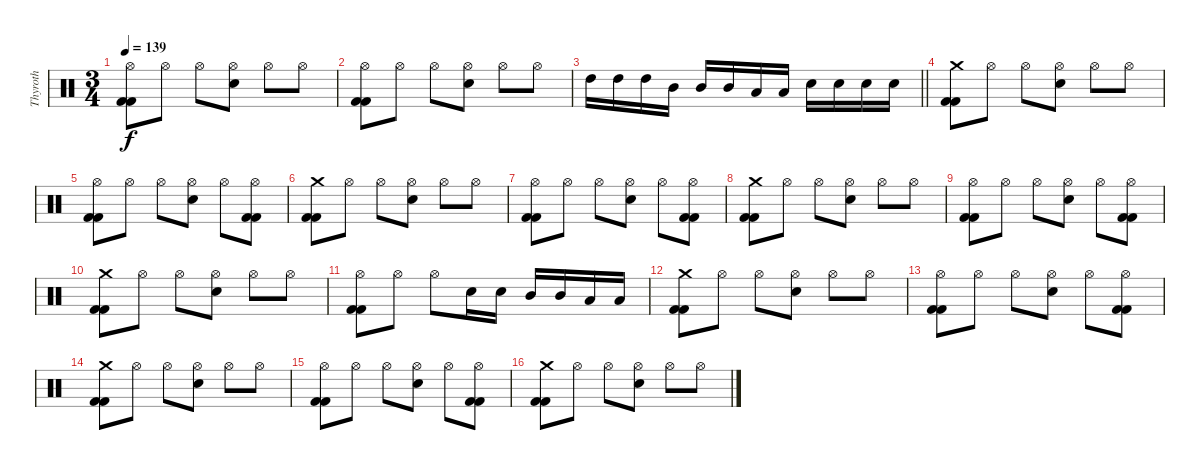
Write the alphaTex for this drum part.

\track ("Thyroth" "Thyroth") {instrument percussion}
\staff {score}
\articulation defaults
\ts (3 4)
\tempo 139
\clef neutral
\ks c
("Kick (hit) 2" "Kick (hit) 2" "Hi-Hat (open)").8{dy f} "Hi-Hat (open)".8 "Hi-Hat (open)".8 ("Snare (hit) 2" "Hi-Hat (open)").8 "Hi-Hat (open)".8 "Hi-Hat (open)".8 |
("Kick (hit) 2" "Kick (hit) 2" "Hi-Hat (open)").8 "Hi-Hat (open)".8 "Hi-Hat (open)".8 ("Snare (hit) 2" "Hi-Hat (open)").8 "Hi-Hat (open)".8 "Hi-Hat (open)".8 |
\barLineRight lightlight "High Tom (hit)".16 "High Tom (hit)".16 "High Tom (hit)".16 "Mid Tom (hit)".16 "Mid Tom (hit)".16 "Mid Tom (hit)".16 "Low Tom (hit)".16 "Low Tom (hit)".16 "Snare (hit) 2".16 "Snare (hit) 2".16 "Snare (hit) 2".16 "Snare (hit) 2".16
|
("Kick (hit) 2" "Kick (hit) 2" "Crash medium (hit)").8 "Hi-Hat (open)".8 "Hi-Hat (open)".8 ("Snare (hit) 2" "Hi-Hat (open)").8 "Hi-Hat (open)".8 "Hi-Hat (open)".8 |
("Kick (hit) 2" "Kick (hit) 2" "Hi-Hat (open)").8 "Hi-Hat (open)".8 "Hi-Hat (open)".8 ("Snare (hit) 2" "Hi-Hat (open)").8 "Hi-Hat (open)".8 ("Kick (hit) 2" "Kick (hit) 2" "Hi-Hat (open)").8 |
("Kick (hit) 2" "Kick (hit) 2" "Crash medium (hit)").8 "Hi-Hat (open)".8 "Hi-Hat (open)".8 ("Snare (hit) 2" "Hi-Hat (open)").8 "Hi-Hat (open)".8 "Hi-Hat (open)".8 |
("Kick (hit) 2" "Kick (hit) 2" "Hi-Hat (open)").8 "Hi-Hat (open)".8 "Hi-Hat (open)".8 ("Snare (hit) 2" "Hi-Hat (open)").8 "Hi-Hat (open)".8 ("Kick (hit) 2" "Kick (hit) 2" "Hi-Hat (open)").8 |
("Kick (hit) 2" "Kick (hit) 2" "Crash medium (hit)").8 "Hi-Hat (open)".8 "Hi-Hat (open)".8 ("Snare (hit) 2" "Hi-Hat (open)").8 "Hi-Hat (open)".8 "Hi-Hat (open)".8 |
("Kick (hit) 2" "Kick (hit) 2" "Hi-Hat (open)").8 "Hi-Hat (open)".8 "Hi-Hat (open)".8 ("Snare (hit) 2" "Hi-Hat (open)").8 "Hi-Hat (open)".8 ("Kick (hit) 2" "Kick (hit) 2" "Hi-Hat (open)").8 |
("Kick (hit) 2" "Kick (hit) 2" "Crash medium (hit)").8 "Hi-Hat (open)".8 "Hi-Hat (open)".8 ("Snare (hit) 2" "Hi-Hat (open)").8 "Hi-Hat (open)".8 "Hi-Hat (open)".8 |
("Kick (hit) 2" "Kick (hit) 2" "Hi-Hat (open)").8 "Hi-Hat (open)".8 "Hi-Hat (open)".8 "Snare (hit) 2".16 "Snare (hit) 2".16 "Mid Tom (hit)".16 "Mid Tom (hit)".16 "Low Tom (hit)".16 "Low Tom (hit)".16 |
("Kick (hit) 2" "Kick (hit) 2" "Crash medium (hit)").8 "Hi-Hat (open)".8 "Hi-Hat (open)".8 ("Snare (hit) 2" "Hi-Hat (open)").8 "Hi-Hat (open)".8 "Hi-Hat (open)".8 |
("Kick (hit) 2" "Kick (hit) 2" "Hi-Hat (open)").8 "Hi-Hat (open)".8 "Hi-Hat (open)".8 ("Snare (hit) 2" "Hi-Hat (open)").8 "Hi-Hat (open)".8 ("Kick (hit) 2" "Kick (hit) 2" "Hi-Hat (open)").8 |
("Kick (hit) 2" "Kick (hit) 2" "Crash medium (hit)").8 "Hi-Hat (open)".8 "Hi-Hat (open)".8 ("Snare (hit) 2" "Hi-Hat (open)").8 "Hi-Hat (open)".8 "Hi-Hat (open)".8 |
("Kick (hit) 2" "Kick (hit) 2" "Hi-Hat (open)").8 "Hi-Hat (open)".8 "Hi-Hat (open)".8 ("Snare (hit) 2" "Hi-Hat (open)").8 "Hi-Hat (open)".8 ("Kick (hit) 2" "Kick (hit) 2" "Hi-Hat (open)").8 |
("Kick (hit) 2" "Kick (hit) 2" "Crash medium (hit)").8 "Hi-Hat (open)".8 "Hi-Hat (open)".8 ("Snare (hit) 2" "Hi-Hat (open)").8 "Hi-Hat (open)".8 "Hi-Hat (open)".8
